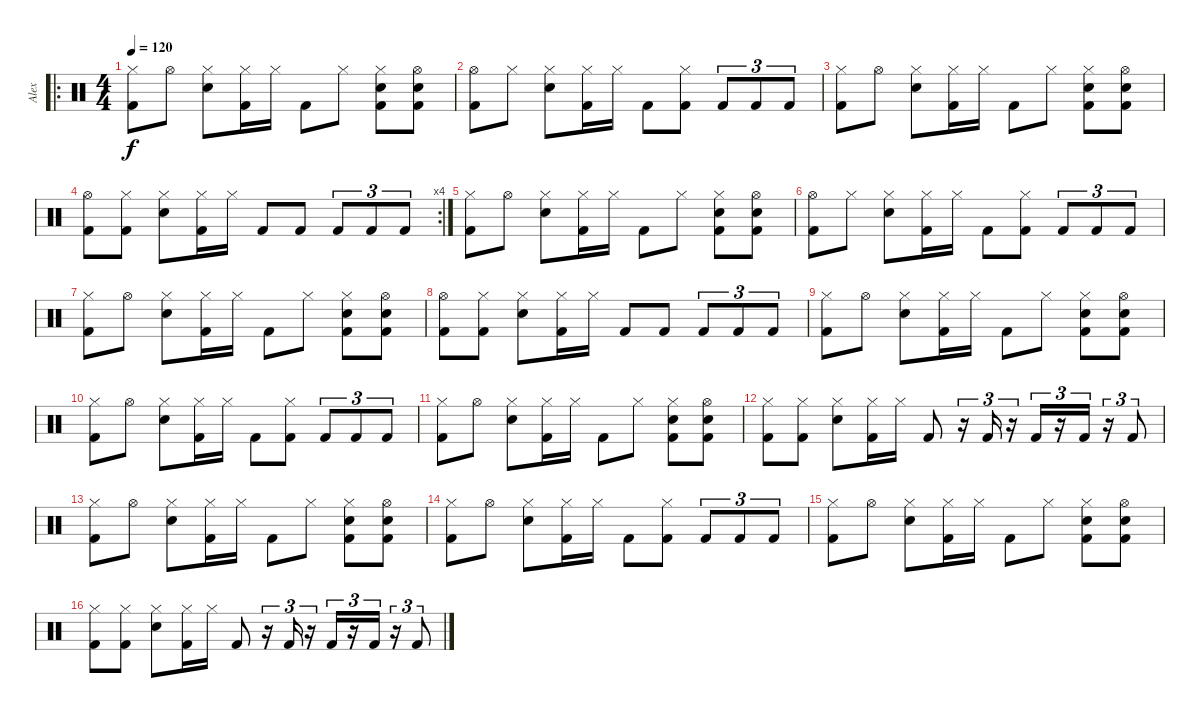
\track ("Alex" "Alex") {instrument percussion}
\staff {score}
\articulation defaults
\ro
\ts (4 4)
\tempo 120
\clef neutral
\ks c
("Hi-Hat (closed)" "Kick (hit) 2").8{dy f} "Hi-Hat (open)".8 ("Electric Snare (hit)" "Hi-Hat (closed)").8 ("Hi-Hat (closed)" "Kick (hit) 2").16 "Hi-Hat (closed)".16 "Kick (hit) 2".8 "Hi-Hat (closed)".8 ("Electric Snare (hit)" "Hi-Hat (closed)" "Kick (hit) 2").8 ("Electric Snare (hit)" "Hi-Hat (open)" "Kick (hit) 2").8 |
("Hi-Hat (open)" "Kick (hit) 2").8 "Hi-Hat (closed)".8 ("Electric Snare (hit)" "Hi-Hat (closed)").8 ("Hi-Hat (closed)" "Kick (hit) 2").16 "Hi-Hat (closed)".16 "Kick (hit) 2".8 ("Hi-Hat (closed)" "Kick (hit) 2").8 "Kick (hit) 2".8{tu (3 2)} "Kick (hit) 2".8{tu (3 2)} "Kick (hit) 2".8{tu (3 2)} |
("Hi-Hat (closed)" "Kick (hit) 2").8 "Hi-Hat (open)".8 ("Electric Snare (hit)" "Hi-Hat (closed)").8 ("Hi-Hat (closed)" "Kick (hit) 2").16 "Hi-Hat (closed)".16 "Kick (hit) 2".8 "Hi-Hat (closed)".8 ("Electric Snare (hit)" "Hi-Hat (closed)" "Kick (hit) 2").8 ("Electric Snare (hit)" "Hi-Hat (open)" "Kick (hit) 2").8 |
\rc 4
("Hi-Hat (open)" "Kick (hit) 2").8 ("Hi-Hat (closed)" "Kick (hit) 2").8 ("Electric Snare (hit)" "Hi-Hat (closed)").8 ("Hi-Hat (closed)" "Kick (hit) 2").16 "Hi-Hat (closed)".16 "Kick (hit) 2".8 "Kick (hit) 2".8 "Kick (hit) 2".8{tu (3 2)} "Kick (hit) 2".8{tu (3 2)} "Kick (hit) 2".8{tu (3 2)} |
("Hi-Hat (closed)" "Kick (hit) 2").8 "Hi-Hat (open)".8 ("Electric Snare (hit)" "Hi-Hat (closed)").8 ("Hi-Hat (closed)" "Kick (hit) 2").16 "Hi-Hat (closed)".16 "Kick (hit) 2".8 "Hi-Hat (closed)".8 ("Electric Snare (hit)" "Hi-Hat (closed)" "Kick (hit) 2").8 ("Electric Snare (hit)" "Hi-Hat (open)" "Kick (hit) 2").8 |
("Hi-Hat (open)" "Kick (hit) 2").8 "Hi-Hat (closed)".8 ("Electric Snare (hit)" "Hi-Hat (closed)").8 ("Hi-Hat (closed)" "Kick (hit) 2").16 "Hi-Hat (closed)".16 "Kick (hit) 2".8 ("Hi-Hat (closed)" "Kick (hit) 2").8 "Kick (hit) 2".8{tu (3 2)} "Kick (hit) 2".8{tu (3 2)} "Kick (hit) 2".8{tu (3 2)} |
("Hi-Hat (closed)" "Kick (hit) 2").8 "Hi-Hat (open)".8 ("Electric Snare (hit)" "Hi-Hat (closed)").8 ("Hi-Hat (closed)" "Kick (hit) 2").16 "Hi-Hat (closed)".16 "Kick (hit) 2".8 "Hi-Hat (closed)".8 ("Electric Snare (hit)" "Hi-Hat (closed)" "Kick (hit) 2").8 ("Electric Snare (hit)" "Hi-Hat (open)" "Kick (hit) 2").8 |
("Hi-Hat (open)" "Kick (hit) 2").8 ("Hi-Hat (closed)" "Kick (hit) 2").8 ("Electric Snare (hit)" "Hi-Hat (closed)").8 ("Hi-Hat (closed)" "Kick (hit) 2").16 "Hi-Hat (closed)".16 "Kick (hit) 2".8 "Kick (hit) 2".8 "Kick (hit) 2".8{tu (3 2)} "Kick (hit) 2".8{tu (3 2)} "Kick (hit) 2".8{tu (3 2)} |
("Hi-Hat (closed)" "Kick (hit) 2").8 "Hi-Hat (open)".8 ("Electric Snare (hit)" "Hi-Hat (closed)").8 ("Hi-Hat (closed)" "Kick (hit) 2").16 "Hi-Hat (closed)".16 "Kick (hit) 2".8 "Hi-Hat (closed)".8 ("Electric Snare (hit)" "Hi-Hat (closed)" "Kick (hit) 2").8 ("Electric Snare (hit)" "Hi-Hat (open)" "Kick (hit) 2").8 |
("Hi-Hat (closed)" "Kick (hit) 2").8 "Hi-Hat (open)".8 ("Electric Snare (hit)" "Hi-Hat (closed)").8 ("Hi-Hat (closed)" "Kick (hit) 2").16 "Hi-Hat (closed)".16 "Kick (hit) 2".8 ("Hi-Hat (closed)" "Kick (hit) 2").8 "Kick (hit) 2".8{tu (3 2)} "Kick (hit) 2".8{tu (3 2)} "Kick (hit) 2".8{tu (3 2)} |
("Hi-Hat (closed)" "Kick (hit) 2").8 "Hi-Hat (open)".8 ("Electric Snare (hit)" "Hi-Hat (closed)").8 ("Hi-Hat (closed)" "Kick (hit) 2").16 "Hi-Hat (closed)".16 "Kick (hit) 2".8 "Hi-Hat (closed)".8 ("Electric Snare (hit)" "Hi-Hat (closed)" "Kick (hit) 2").8 ("Electric Snare (hit)" "Hi-Hat (open)" "Kick (hit) 2").8 |
("Hi-Hat (closed)" "Kick (hit) 2").8 ("Hi-Hat (closed)" "Kick (hit) 2").8 ("Electric Snare (hit)" "Hi-Hat (closed)").8 ("Hi-Hat (closed)" "Kick (hit) 2").16 "Hi-Hat (closed)".16 "Kick (hit) 2".8 r.16{tu (3 2)} "Kick (hit) 2".16{tu (3 2)} r.16{tu (3 2)} "Kick (hit) 2".16{tu (3 2)} r.16{tu (3 2)} "Kick (hit) 2".16{tu (3 2)} r.16{tu (3 2)} "Kick (hit) 2".8{tu (3 2)} |
("Hi-Hat (closed)" "Kick (hit) 2").8 "Hi-Hat (open)".8 ("Electric Snare (hit)" "Hi-Hat (closed)").8 ("Hi-Hat (closed)" "Kick (hit) 2").16 "Hi-Hat (closed)".16 "Kick (hit) 2".8 "Hi-Hat (closed)".8 ("Electric Snare (hit)" "Hi-Hat (closed)" "Kick (hit) 2").8 ("Electric Snare (hit)" "Hi-Hat (open)" "Kick (hit) 2").8 |
("Hi-Hat (closed)" "Kick (hit) 2").8 "Hi-Hat (open)".8 ("Electric Snare (hit)" "Hi-Hat (closed)").8 ("Hi-Hat (closed)" "Kick (hit) 2").16 "Hi-Hat (closed)".16 "Kick (hit) 2".8 ("Hi-Hat (closed)" "Kick (hit) 2").8 "Kick (hit) 2".8{tu (3 2)} "Kick (hit) 2".8{tu (3 2)} "Kick (hit) 2".8{tu (3 2)} |
("Hi-Hat (closed)" "Kick (hit) 2").8 "Hi-Hat (open)".8 ("Electric Snare (hit)" "Hi-Hat (closed)").8 ("Hi-Hat (closed)" "Kick (hit) 2").16 "Hi-Hat (closed)".16 "Kick (hit) 2".8 "Hi-Hat (closed)".8 ("Electric Snare (hit)" "Hi-Hat (closed)" "Kick (hit) 2").8 ("Electric Snare (hit)" "Hi-Hat (open)" "Kick (hit) 2").8 |
("Hi-Hat (closed)" "Kick (hit) 2").8 ("Hi-Hat (closed)" "Kick (hit) 2").8 ("Electric Snare (hit)" "Hi-Hat (closed)").8 ("Hi-Hat (closed)" "Kick (hit) 2").16 "Hi-Hat (closed)".16 "Kick (hit) 2".8 r.16{tu (3 2)} "Kick (hit) 2".16{tu (3 2)} r.16{tu (3 2)} "Kick (hit) 2".16{tu (3 2)} r.16{tu (3 2)} "Kick (hit) 2".16{tu (3 2)} r.16{tu (3 2)} "Kick (hit) 2".8{tu (3 2)}
